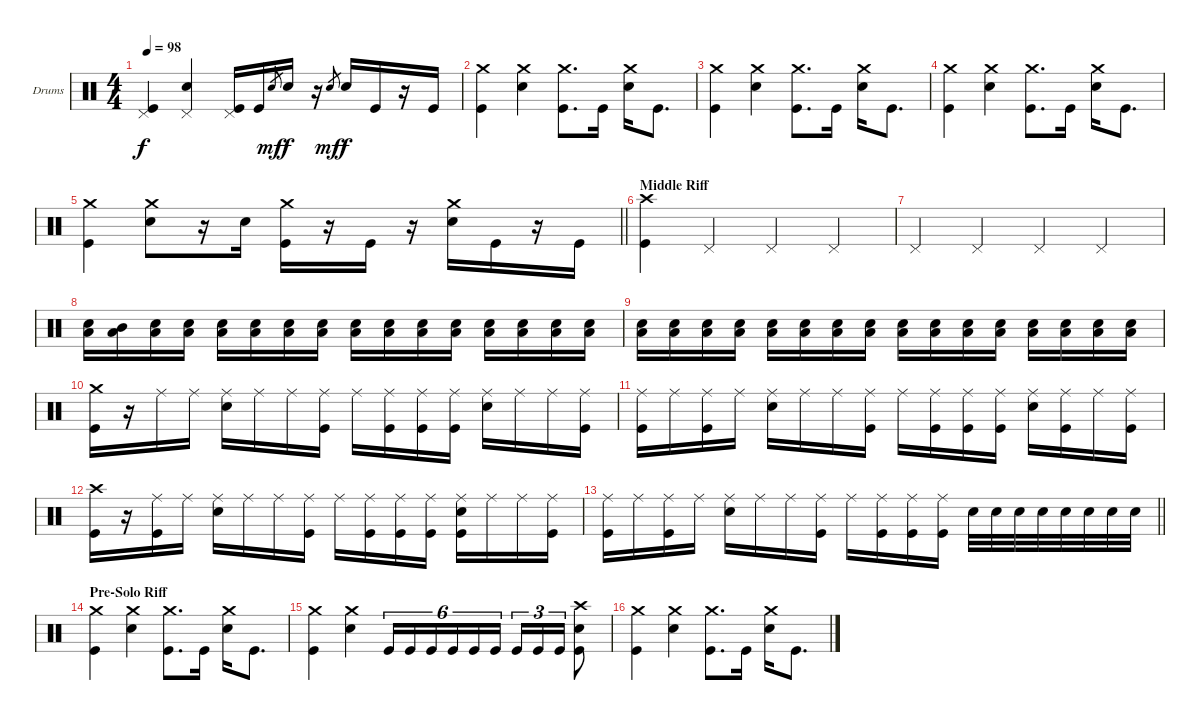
\bracketExtendMode groupsimilarinstruments
\firstSystemTrackNameOrientation horizontal
\otherSystemsTrackNameOrientation horizontal
\track ("Drumkit" "Drums") {instrument percussion}
\staff {score}
\articulation defaults
\ts (4 4)
\tempo 98
\clef neutral
\ks c
("Pedal Hi-Hat (hit)" "Kick (hit)").4{dy f} ("Pedal Hi-Hat (hit)" "Snare (hit) 2").4 ("Pedal Hi-Hat (hit)" "Kick (hit)").16 "Kick (hit)".16 "Snare (hit) 2".8{gr dy mf} "Snare (hit) 2".16{dy f} r.16 "Snare (hit) 2".8{gr dy mf} "Snare (hit) 2".16{dy f} "Kick (hit)".16 r.16 "Kick (hit)".16 |
("Crash medium (hit)" "Kick (hit)").4 ("Crash medium (hit)" "Snare (hit) 2").4 ("Crash medium (hit)" "Kick (hit)").8{d} "Kick (hit)".16 ("Crash medium (hit)" "Snare (hit) 2").16 "Kick (hit)".8{d} |
("Crash medium (hit)" "Kick (hit)").4 ("Crash medium (hit)" "Snare (hit) 2").4 ("Crash medium (hit)" "Kick (hit)").8{d} "Kick (hit)".16 ("Crash medium (hit)" "Snare (hit) 2").16 "Kick (hit)".8{d} |
("Crash medium (hit)" "Kick (hit)").4 ("Crash medium (hit)" "Snare (hit) 2").4 ("Crash medium (hit)" "Kick (hit)").8{d} "Kick (hit)".16 ("Crash medium (hit)" "Snare (hit) 2").16 "Kick (hit)".8{d} |
\barLineRight lightlight
("Crash medium (hit)" "Kick (hit)").4 ("Crash medium (hit)" "Snare (hit) 2").8 r.16 "Snare (hit) 2".16 ("Crash medium (hit)" "Kick (hit)").16 r.16 "Kick (hit)".16 r.16 ("Crash medium (hit)" "Snare (hit) 2").16 "Kick (hit)".16 r.16 "Kick (hit)".16 |
\section ("" "Middle Riff")
("Crash high (hit)" "Kick (hit)").4 "Pedal Hi-Hat (hit)".4 "Pedal Hi-Hat (hit)".4 "Pedal Hi-Hat (hit)".4 |
"Pedal Hi-Hat (hit)".4 "Pedal Hi-Hat (hit)".4 "Pedal Hi-Hat (hit)".4 "Pedal Hi-Hat (hit)".4 |
("Snare (hit) 2" "Low Tom (hit)").16 ("Mid Tom (hit)" "Low Tom (hit)").16 ("Snare (hit) 2" "Low Tom (hit)").16 ("Snare (hit) 2" "Low Tom (hit)").16 ("Snare (hit) 2" "Low Tom (hit)").16 ("Snare (hit) 2" "Low Tom (hit)").16 ("Snare (hit) 2" "Low Tom (hit)").16 ("Snare (hit) 2" "Low Tom (hit)").16 ("Snare (hit) 2" "Low Tom (hit)").16 ("Snare (hit) 2" "Low Tom (hit)").16 ("Snare (hit) 2" "Low Tom (hit)").16 ("Snare (hit) 2" "Low Tom (hit)").16 ("Snare (hit) 2" "Low Tom (hit)").16 ("Snare (hit) 2" "Low Tom (hit)").16 ("Snare (hit) 2" "Low Tom (hit)").16 ("Snare (hit) 2" "Low Tom (hit)").16 |
("Snare (hit) 2" "Low Tom (hit)").16 ("Snare (hit) 2" "Low Tom (hit)").16 ("Snare (hit) 2" "Low Tom (hit)").16 ("Snare (hit) 2" "Low Tom (hit)").16 ("Snare (hit) 2" "Low Tom (hit)").16 ("Snare (hit) 2" "Low Tom (hit)").16 ("Snare (hit) 2" "Low Tom (hit)").16 ("Snare (hit) 2" "Low Tom (hit)").16 ("Snare (hit) 2" "Low Tom (hit)").16 ("Snare (hit) 2" "Low Tom (hit)").16 ("Snare (hit) 2" "Low Tom (hit)").16 ("Snare (hit) 2" "Low Tom (hit)").16 ("Snare (hit) 2" "Low Tom (hit)").16 ("Snare (hit) 2" "Low Tom (hit)").16 ("Snare (hit) 2" "Low Tom (hit)").16 ("Snare (hit) 2" "Low Tom (hit)").16 |
("Crash medium (hit)" "Kick (hit)").16 r.16 "Ride (middle)".16 "Ride (middle)".16 ("Ride (middle)" "Snare (hit) 2").16 "Ride (middle)".16 "Ride (middle)".16 ("Ride (middle)" "Kick (hit)").16 "Ride (middle)".16 ("Ride (middle)" "Kick (hit)").16 ("Ride (middle)" "Kick (hit)").16 ("Ride (middle)" "Kick (hit)").16 ("Ride (middle)" "Snare (hit) 2").16 "Ride (middle)".16 "Ride (middle)".16 ("Ride (middle)" "Kick (hit)").16 |
("Ride (middle)" "Kick (hit)").16 "Ride (middle)".16 ("Ride (middle)" "Kick (hit)").16 "Ride (middle)".16 ("Ride (middle)" "Snare (hit) 2").16 "Ride (middle)".16 "Ride (middle)".16 ("Ride (middle)" "Kick (hit)").16 "Ride (middle)".16 ("Ride (middle)" "Kick (hit)").16 ("Ride (middle)" "Kick (hit)").16 ("Ride (middle)" "Kick (hit)").16 ("Ride (middle)" "Snare (hit) 2").16 ("Ride (middle)" "Kick (hit)").16 "Ride (middle)".16 ("Ride (middle)" "Kick (hit)").16 |
("Crash high (hit)" "Kick (hit)").16 r.16 ("Ride (middle)" "Kick (hit)").16 "Ride (middle)".16 ("Ride (middle)" "Snare (hit) 2").16 "Ride (middle)".16 "Ride (middle)".16 ("Ride (middle)" "Kick (hit)").16 "Ride (middle)".16 ("Ride (middle)" "Kick (hit)").16 ("Ride (middle)" "Kick (hit)").16 ("Ride (middle)" "Kick (hit)").16 ("Ride (middle)" "Snare (hit) 2" "Kick (hit)").16 "Ride (middle)".16 "Ride (middle)".16 ("Ride (middle)" "Kick (hit)").16 |
\barLineRight lightlight
("Ride (middle)" "Kick (hit)").16 "Ride (middle)".16 ("Ride (middle)" "Kick (hit)").16 "Ride (middle)".16 ("Ride (middle)" "Snare (hit) 2").16 "Ride (middle)".16 "Ride (middle)".16 ("Ride (middle)" "Kick (hit)").16 "Ride (middle)".16 ("Ride (middle)" "Kick (hit)").16 ("Ride (middle)" "Kick (hit)").16 ("Ride (middle)" "Kick (hit)").16 "Snare (hit) 2".32 "Snare (hit) 2".32 "Snare (hit) 2".32 "Snare (hit) 2".32 "Snare (hit) 2".32 "Snare (hit) 2".32 "Snare (hit) 2".32 "Snare (hit) 2".32 |
\section ("" "Pre-Solo Riff")
("Crash medium (hit)" "Kick (hit)").4 ("Crash medium (hit)" "Snare (hit) 2").4 ("Crash medium (hit)" "Kick (hit)").8{d} "Kick (hit)".16 ("Crash medium (hit)" "Snare (hit) 2").16 "Kick (hit)".8{d} |
("Crash medium (hit)" "Kick (hit)").4 ("Crash medium (hit)" "Snare (hit) 2").4 "Kick (hit)".16{tu (6 4)} "Kick (hit)".16{tu (6 4)} "Kick (hit)".16{tu (6 4)} "Kick (hit)".16{tu (6 4)} "Kick (hit)".16{tu (6 4)} "Kick (hit)".16{tu (6 4)} "Kick (hit)".16{tu (3 2)} "Kick (hit)".16{tu (3 2)} "Kick (hit)".16{tu (3 2)} ("Crash high (hit)" "Snare (hit) 2" "Kick (hit)").8 |
("Crash medium (hit)" "Kick (hit)").4 ("Crash medium (hit)" "Snare (hit) 2").4 ("Crash medium (hit)" "Kick (hit)").8{d} "Kick (hit)".16 ("Crash medium (hit)" "Snare (hit) 2").16 "Kick (hit)".8{d}
